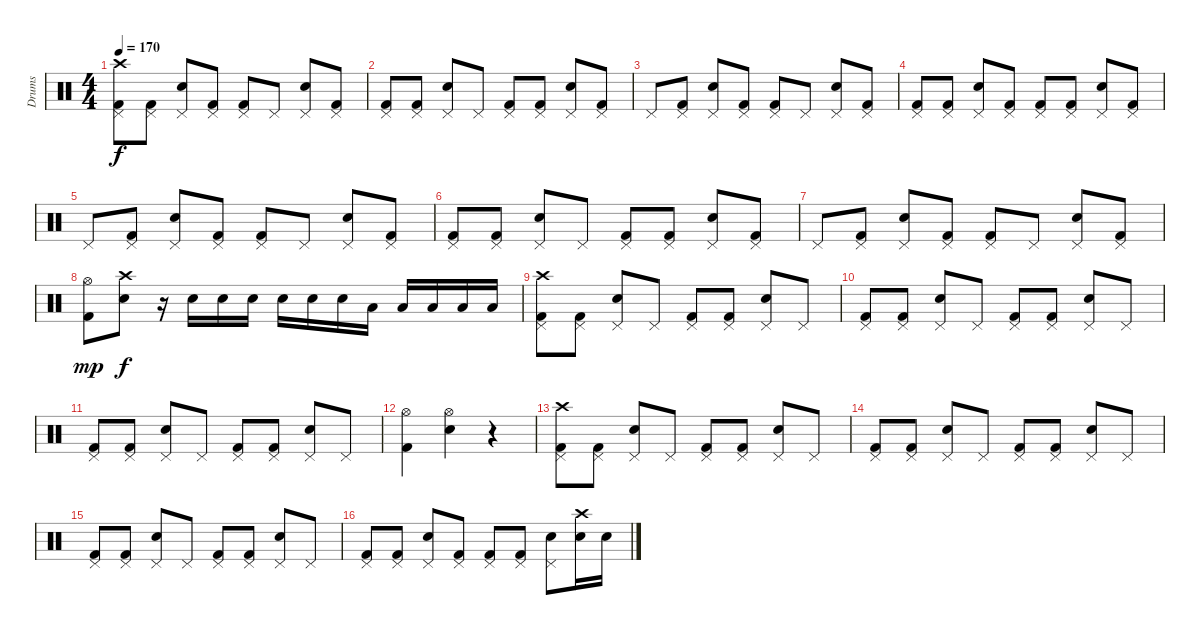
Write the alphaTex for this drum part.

\track ("Drums" "Drums") {instrument percussion}
\staff {score}
\articulation defaults
\ts (4 4)
\tempo 170
\clef neutral
\ks c
("Crash high (hit)" "Pedal Hi-Hat (hit)" "Kick (hit) 2").8{dy f} ("Pedal Hi-Hat (hit)" "Kick (hit) 2").8 ("Pedal Hi-Hat (hit)" "Snare (hit) 2").8 ("Pedal Hi-Hat (hit)" "Kick (hit) 2").8 ("Pedal Hi-Hat (hit)" "Kick (hit) 2").8 "Pedal Hi-Hat (hit)".8 ("Pedal Hi-Hat (hit)" "Snare (hit) 2").8 ("Pedal Hi-Hat (hit)" "Kick (hit) 2").8 |
("Pedal Hi-Hat (hit)" "Kick (hit) 2").8 ("Pedal Hi-Hat (hit)" "Kick (hit) 2").8 ("Pedal Hi-Hat (hit)" "Snare (hit) 2").8 "Pedal Hi-Hat (hit)".8 ("Pedal Hi-Hat (hit)" "Kick (hit) 2").8 ("Pedal Hi-Hat (hit)" "Kick (hit) 2").8 ("Pedal Hi-Hat (hit)" "Snare (hit) 2").8 ("Pedal Hi-Hat (hit)" "Kick (hit) 2").8 |
"Pedal Hi-Hat (hit)".8 ("Pedal Hi-Hat (hit)" "Kick (hit) 2").8 ("Pedal Hi-Hat (hit)" "Snare (hit) 2").8 ("Pedal Hi-Hat (hit)" "Kick (hit) 2").8 ("Pedal Hi-Hat (hit)" "Kick (hit) 2").8 "Pedal Hi-Hat (hit)".8 ("Pedal Hi-Hat (hit)" "Snare (hit) 2").8 ("Pedal Hi-Hat (hit)" "Kick (hit) 2").8 |
("Pedal Hi-Hat (hit)" "Kick (hit) 2").8 ("Pedal Hi-Hat (hit)" "Kick (hit) 2").8 ("Pedal Hi-Hat (hit)" "Snare (hit) 2").8 ("Pedal Hi-Hat (hit)" "Kick (hit) 2").8 ("Pedal Hi-Hat (hit)" "Kick (hit) 2").8 ("Pedal Hi-Hat (hit)" "Kick (hit) 2").8 ("Pedal Hi-Hat (hit)" "Snare (hit) 2").8 ("Pedal Hi-Hat (hit)" "Kick (hit) 2").8 |
"Pedal Hi-Hat (hit)".8 ("Pedal Hi-Hat (hit)" "Kick (hit) 2").8 ("Pedal Hi-Hat (hit)" "Snare (hit) 2").8 ("Pedal Hi-Hat (hit)" "Kick (hit) 2").8 ("Pedal Hi-Hat (hit)" "Kick (hit) 2").8 "Pedal Hi-Hat (hit)".8 ("Pedal Hi-Hat (hit)" "Snare (hit) 2").8 ("Pedal Hi-Hat (hit)" "Kick (hit) 2").8 |
("Pedal Hi-Hat (hit)" "Kick (hit) 2").8 ("Pedal Hi-Hat (hit)" "Kick (hit) 2").8 ("Pedal Hi-Hat (hit)" "Snare (hit) 2").8 "Pedal Hi-Hat (hit)".8 ("Pedal Hi-Hat (hit)" "Kick (hit) 2").8 ("Pedal Hi-Hat (hit)" "Kick (hit) 2").8 ("Pedal Hi-Hat (hit)" "Snare (hit) 2").8 ("Pedal Hi-Hat (hit)" "Kick (hit) 2").8 |
"Pedal Hi-Hat (hit)".8 ("Pedal Hi-Hat (hit)" "Kick (hit) 2").8 ("Pedal Hi-Hat (hit)" "Snare (hit) 2").8 ("Pedal Hi-Hat (hit)" "Kick (hit) 2").8 ("Pedal Hi-Hat (hit)" "Kick (hit) 2").8 "Pedal Hi-Hat (hit)".8 ("Pedal Hi-Hat (hit)" "Snare (hit) 2").8 ("Pedal Hi-Hat (hit)" "Kick (hit) 2").8 |
("Hi-Hat (open)" "Kick (hit) 2").8{dy mp} ("Crash high (hit)" "Snare (hit) 2").8{dy f} r.16 "Snare (hit) 2".16 "Snare (hit) 2".16 "Snare (hit) 2".16 "Snare (hit) 2".16 "Snare (hit) 2".16 "Snare (hit) 2".16 "Low Floor Tom (hit)".16 "Low Floor Tom (hit)".16 "Low Floor Tom (hit)".16 "Low Floor Tom (hit)".16 "Low Floor Tom (hit)".16 |
("Crash high (hit)" "Pedal Hi-Hat (hit)" "Kick (hit) 2").8 ("Pedal Hi-Hat (hit)" "Kick (hit) 2").8 ("Pedal Hi-Hat (hit)" "Electric Snare (hit)").8 "Pedal Hi-Hat (hit)".8 ("Pedal Hi-Hat (hit)" "Kick (hit) 2").8 ("Pedal Hi-Hat (hit)" "Kick (hit) 2").8 ("Pedal Hi-Hat (hit)" "Electric Snare (hit)").8 "Pedal Hi-Hat (hit)".8 |
("Pedal Hi-Hat (hit)" "Kick (hit) 2").8 ("Pedal Hi-Hat (hit)" "Kick (hit) 2").8 ("Pedal Hi-Hat (hit)" "Electric Snare (hit)").8 "Pedal Hi-Hat (hit)".8 ("Pedal Hi-Hat (hit)" "Kick (hit) 2").8 ("Pedal Hi-Hat (hit)" "Kick (hit) 2").8 ("Pedal Hi-Hat (hit)" "Electric Snare (hit)").8 "Pedal Hi-Hat (hit)".8 |
("Pedal Hi-Hat (hit)" "Kick (hit) 2").8 ("Pedal Hi-Hat (hit)" "Kick (hit) 2").8 ("Pedal Hi-Hat (hit)" "Electric Snare (hit)").8 "Pedal Hi-Hat (hit)".8 ("Pedal Hi-Hat (hit)" "Kick (hit) 2").8 ("Pedal Hi-Hat (hit)" "Kick (hit) 2").8 ("Pedal Hi-Hat (hit)" "Electric Snare (hit)").8 "Pedal Hi-Hat (hit)".8 |
("Hi-Hat (open)" "Kick (hit) 2").4 ("Hi-Hat (open)" "Electric Snare (hit)").4 r.4 |
("Crash high (hit)" "Pedal Hi-Hat (hit)" "Kick (hit) 2").8 ("Pedal Hi-Hat (hit)" "Kick (hit) 2").8 ("Pedal Hi-Hat (hit)" "Electric Snare (hit)").8 "Pedal Hi-Hat (hit)".8 ("Pedal Hi-Hat (hit)" "Kick (hit) 2").8 ("Pedal Hi-Hat (hit)" "Kick (hit) 2").8 ("Pedal Hi-Hat (hit)" "Electric Snare (hit)").8 "Pedal Hi-Hat (hit)".8 |
("Pedal Hi-Hat (hit)" "Kick (hit) 2").8 ("Pedal Hi-Hat (hit)" "Kick (hit) 2").8 ("Pedal Hi-Hat (hit)" "Electric Snare (hit)").8 "Pedal Hi-Hat (hit)".8 ("Pedal Hi-Hat (hit)" "Kick (hit) 2").8 ("Pedal Hi-Hat (hit)" "Kick (hit) 2").8 ("Pedal Hi-Hat (hit)" "Electric Snare (hit)").8 "Pedal Hi-Hat (hit)".8 |
("Pedal Hi-Hat (hit)" "Kick (hit) 2").8 ("Pedal Hi-Hat (hit)" "Kick (hit) 2").8 ("Pedal Hi-Hat (hit)" "Electric Snare (hit)").8 "Pedal Hi-Hat (hit)".8 ("Pedal Hi-Hat (hit)" "Kick (hit) 2").8 ("Pedal Hi-Hat (hit)" "Kick (hit) 2").8 ("Pedal Hi-Hat (hit)" "Electric Snare (hit)").8 "Pedal Hi-Hat (hit)".8 |
("Pedal Hi-Hat (hit)" "Kick (hit) 2").8 ("Pedal Hi-Hat (hit)" "Kick (hit) 2").8 ("Pedal Hi-Hat (hit)" "Electric Snare (hit)").8 ("Pedal Hi-Hat (hit)" "Kick (hit) 2").8 ("Pedal Hi-Hat (hit)" "Kick (hit) 2").8 ("Pedal Hi-Hat (hit)" "Kick (hit) 2").8 ("Pedal Hi-Hat (hit)" "Electric Snare (hit)").8 ("Crash high (hit)" "Electric Snare (hit)").16 "Electric Snare (hit)".16
